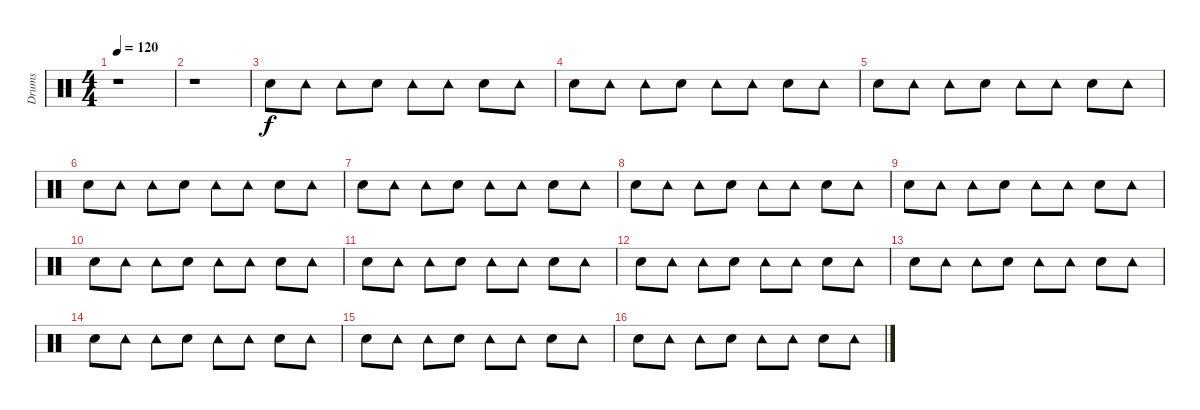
\track ("Drums" "Drums") {instrument percussion}
\staff {score}
\articulation defaults
\ts (4 4)
\tempo 120
\clef neutral
\ks c
r.1{dy f} |
r.1 |
"Electric Snare (hit)".8 "Tambourine (hit)".8 "Tambourine (hit)".8 "Electric Snare (hit)".8 "Tambourine (hit)".8 "Tambourine (hit)".8 "Electric Snare (hit)".8 "Tambourine (hit)".8 |
"Electric Snare (hit)".8 "Tambourine (hit)".8 "Tambourine (hit)".8 "Electric Snare (hit)".8 "Tambourine (hit)".8 "Tambourine (hit)".8 "Electric Snare (hit)".8 "Tambourine (hit)".8 |
"Electric Snare (hit)".8 "Tambourine (hit)".8 "Tambourine (hit)".8 "Electric Snare (hit)".8 "Tambourine (hit)".8 "Tambourine (hit)".8 "Electric Snare (hit)".8 "Tambourine (hit)".8 |
"Electric Snare (hit)".8 "Tambourine (hit)".8 "Tambourine (hit)".8 "Electric Snare (hit)".8 "Tambourine (hit)".8 "Tambourine (hit)".8 "Electric Snare (hit)".8 "Tambourine (hit)".8 |
"Electric Snare (hit)".8 "Tambourine (hit)".8 "Tambourine (hit)".8 "Electric Snare (hit)".8 "Tambourine (hit)".8 "Tambourine (hit)".8 "Electric Snare (hit)".8 "Tambourine (hit)".8 |
"Electric Snare (hit)".8 "Tambourine (hit)".8 "Tambourine (hit)".8 "Electric Snare (hit)".8 "Tambourine (hit)".8 "Tambourine (hit)".8 "Electric Snare (hit)".8 "Tambourine (hit)".8 |
"Electric Snare (hit)".8 "Tambourine (hit)".8 "Tambourine (hit)".8 "Electric Snare (hit)".8 "Tambourine (hit)".8 "Tambourine (hit)".8 "Electric Snare (hit)".8 "Tambourine (hit)".8 |
"Electric Snare (hit)".8 "Tambourine (hit)".8 "Tambourine (hit)".8 "Electric Snare (hit)".8 "Tambourine (hit)".8 "Tambourine (hit)".8 "Electric Snare (hit)".8 "Tambourine (hit)".8 |
"Electric Snare (hit)".8 "Tambourine (hit)".8 "Tambourine (hit)".8 "Electric Snare (hit)".8 "Tambourine (hit)".8 "Tambourine (hit)".8 "Electric Snare (hit)".8 "Tambourine (hit)".8 |
"Electric Snare (hit)".8 "Tambourine (hit)".8 "Tambourine (hit)".8 "Electric Snare (hit)".8 "Tambourine (hit)".8 "Tambourine (hit)".8 "Electric Snare (hit)".8 "Tambourine (hit)".8 |
"Electric Snare (hit)".8 "Tambourine (hit)".8 "Tambourine (hit)".8 "Electric Snare (hit)".8 "Tambourine (hit)".8 "Tambourine (hit)".8 "Electric Snare (hit)".8 "Tambourine (hit)".8 |
"Electric Snare (hit)".8 "Tambourine (hit)".8 "Tambourine (hit)".8 "Electric Snare (hit)".8 "Tambourine (hit)".8 "Tambourine (hit)".8 "Electric Snare (hit)".8 "Tambourine (hit)".8 |
"Electric Snare (hit)".8 "Tambourine (hit)".8 "Tambourine (hit)".8 "Electric Snare (hit)".8 "Tambourine (hit)".8 "Tambourine (hit)".8 "Electric Snare (hit)".8 "Tambourine (hit)".8 |
"Electric Snare (hit)".8 "Tambourine (hit)".8 "Tambourine (hit)".8 "Electric Snare (hit)".8 "Tambourine (hit)".8 "Tambourine (hit)".8 "Electric Snare (hit)".8 "Tambourine (hit)".8
